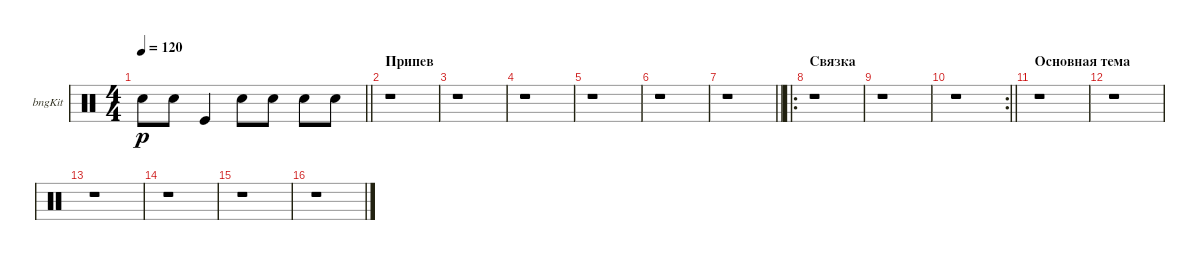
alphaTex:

\bracketExtendMode groupsimilarinstruments
\firstSystemTrackNameOrientation horizontal
\otherSystemsTrackNameOrientation horizontal
\track ("Bongos" "bngKit") {instrument percussion}
\staff {score}
\articulation defaults
\ts (4 4)
\tempo 120
\clef neutral
\barLineRight lightlight
\ks c "Snare (hit) 2".8{dy p} "Snare (hit) 2".8 "Kick (hit)".4 "Snare (hit) 2".8 "Snare (hit) 2".8 "Snare (hit) 2".8 "Snare (hit) 2".8
|
\section ("" "Припев")
r.1 |
r.1 |
r.1 |
r.1 |
r.1 |
\barLineRight lightlight
r.1 |
\ro
\section ("" "Связка")
r.1 |
r.1 |
\rc 2
\barLineRight lightlight
r.1 |
\section ("" "Основная тема")
r.1 |
r.1 |
r.1 |
r.1 |
r.1 |
r.1
